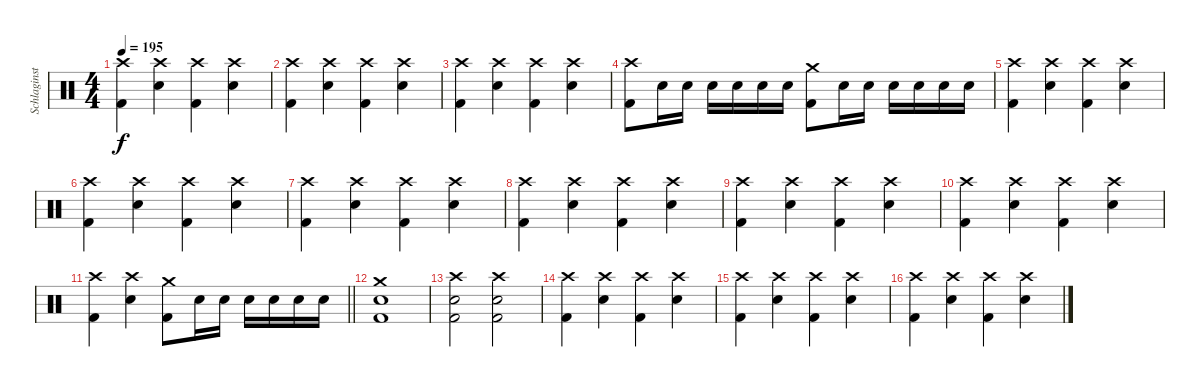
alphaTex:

\track ("Schlaginstrumente - Auswahl" "Schlaginst") {instrument percussion}
\staff {score}
\articulation defaults
\ts (4 4)
\tempo 195
\clef neutral
\ks c
("Crash high (hit)" "Kick (hit) 2").4{dy f} ("Crash high (hit)" "Snare (hit) 2").4 ("Crash high (hit)" "Kick (hit) 2").4 ("Crash high (hit)" "Snare (hit) 2").4 |
("Crash high (hit)" "Kick (hit) 2").4 ("Crash high (hit)" "Snare (hit) 2").4 ("Crash high (hit)" "Kick (hit) 2").4 ("Crash high (hit)" "Snare (hit) 2").4 |
("Crash high (hit)" "Kick (hit) 2").4 ("Crash high (hit)" "Snare (hit) 2").4 ("Crash high (hit)" "Kick (hit) 2").4 ("Crash high (hit)" "Snare (hit) 2").4 |
("Crash high (hit)" "Kick (hit) 2").8 "Snare (hit) 2".16 "Snare (hit) 2".16 "Snare (hit) 2".16 "Snare (hit) 2".16 "Snare (hit) 2".16 "Snare (hit) 2".16 ("Crash medium (hit)" "Kick (hit) 2").8 "Snare (hit) 2".16 "Snare (hit) 2".16 "Snare (hit) 2".16 "Snare (hit) 2".16 "Snare (hit) 2".16 "Snare (hit) 2".16 |
("Crash high (hit)" "Kick (hit) 2").4 ("Crash high (hit)" "Snare (hit) 2").4 ("Crash high (hit)" "Kick (hit) 2").4 ("Crash high (hit)" "Snare (hit) 2").4 |
("Crash high (hit)" "Kick (hit) 2").4 ("Crash high (hit)" "Snare (hit) 2").4 ("Crash high (hit)" "Kick (hit) 2").4 ("Crash high (hit)" "Snare (hit) 2").4 |
("Crash high (hit)" "Kick (hit) 2").4 ("Crash high (hit)" "Snare (hit) 2").4 ("Crash high (hit)" "Kick (hit) 2").4 ("Crash high (hit)" "Snare (hit) 2").4 |
("Crash high (hit)" "Kick (hit) 2").4 ("Crash high (hit)" "Snare (hit) 2").4 ("Crash high (hit)" "Kick (hit) 2").4 ("Crash high (hit)" "Snare (hit) 2").4 |
("Crash high (hit)" "Kick (hit) 2").4 ("Crash high (hit)" "Snare (hit) 2").4 ("Crash high (hit)" "Kick (hit) 2").4 ("Crash high (hit)" "Snare (hit) 2").4 |
("Crash high (hit)" "Kick (hit) 2").4 ("Crash high (hit)" "Snare (hit) 2").4 ("Crash high (hit)" "Kick (hit) 2").4 ("Crash high (hit)" "Snare (hit) 2").4 |
\barLineRight lightlight
("Crash high (hit)" "Kick (hit) 2").4 ("Crash high (hit)" "Snare (hit) 2").4 ("Crash medium (hit)" "Kick (hit) 2").8 "Snare (hit) 2".16 "Snare (hit) 2".16 "Snare (hit) 2".16 "Snare (hit) 2".16 "Snare (hit) 2".16 "Snare (hit) 2".16 |
("Crash medium (hit)" "Kick (hit) 2" "Snare (hit) 2").1 |
("Crash high (hit)" "Kick (hit) 2" "Snare (hit) 2").2 ("Crash high (hit)" "Kick (hit) 2" "Snare (hit) 2").2 |
("Crash high (hit)" "Kick (hit) 2").4 ("Crash high (hit)" "Snare (hit) 2").4 ("Crash high (hit)" "Kick (hit) 2").4 ("Crash high (hit)" "Snare (hit) 2").4 |
("Crash high (hit)" "Kick (hit) 2").4 ("Crash high (hit)" "Snare (hit) 2").4 ("Crash high (hit)" "Kick (hit) 2").4 ("Crash high (hit)" "Snare (hit) 2").4 |
("Crash high (hit)" "Kick (hit) 2").4 ("Crash high (hit)" "Snare (hit) 2").4 ("Crash high (hit)" "Kick (hit) 2").4 ("Crash high (hit)" "Snare (hit) 2").4
